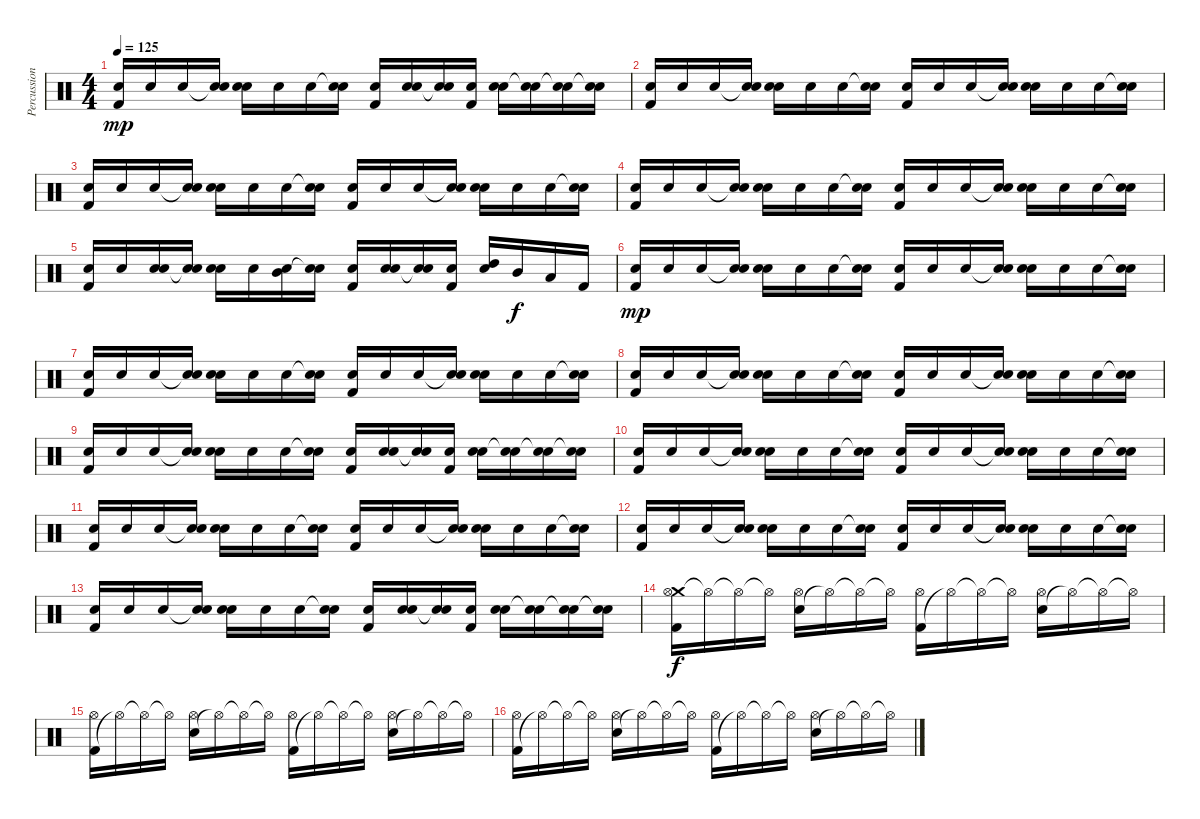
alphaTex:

\track ("Percussions" "Percussion") {instrument percussion}
\staff {score}
\articulation defaults
\ts (4 4)
\tempo 125
\clef neutral
\ks c
("Kick (hit) 2" "Electric Snare (hit)").16{dy mp} "Electric Snare (hit)".16 "Electric Snare (hit)".16 ("Snare (hit)"{t} "Electric Snare (hit)").16 ("Electric Snare (hit)" "Electric Snare (hit)").16 "Electric Snare (hit)".16 "Electric Snare (hit)".16 ("Snare (hit)"{t} "Electric Snare (hit)").16 ("Kick (hit) 2" "Electric Snare (hit)").16 ("Electric Snare (hit)" "Electric Snare (hit)").16 ("Electric Snare (hit)"{t} "Electric Snare (hit)").16 ("Kick (hit) 2" "Electric Snare (hit)").16 ("Electric Snare (hit)" "Electric Snare (hit)").16 ("Electric Snare (hit)"{t} "Electric Snare (hit)").16 ("Electric Snare (hit)"{t} "Electric Snare (hit)").16 ("Snare (hit)"{t} "Electric Snare (hit)").16 |
("Kick (hit) 2" "Electric Snare (hit)").16 "Electric Snare (hit)".16 "Electric Snare (hit)".16 ("Snare (hit)"{t} "Electric Snare (hit)").16 ("Electric Snare (hit)" "Electric Snare (hit)").16 "Electric Snare (hit)".16 "Electric Snare (hit)".16 ("Snare (hit)"{t} "Electric Snare (hit)").16 ("Kick (hit) 2" "Electric Snare (hit)").16 "Electric Snare (hit)".16 "Electric Snare (hit)".16 ("Snare (hit)"{t} "Electric Snare (hit)").16 ("Electric Snare (hit)" "Electric Snare (hit)").16 "Electric Snare (hit)".16 "Electric Snare (hit)".16 ("Snare (hit)"{t} "Electric Snare (hit)").16 |
("Kick (hit) 2" "Electric Snare (hit)").16 "Electric Snare (hit)".16 "Electric Snare (hit)".16 ("Snare (hit)"{t} "Electric Snare (hit)").16 ("Electric Snare (hit)" "Electric Snare (hit)").16 "Electric Snare (hit)".16 "Electric Snare (hit)".16 ("Snare (hit)"{t} "Electric Snare (hit)").16 ("Kick (hit) 2" "Electric Snare (hit)").16 "Electric Snare (hit)".16 "Electric Snare (hit)".16 ("Snare (hit)"{t} "Electric Snare (hit)").16 ("Electric Snare (hit)" "Electric Snare (hit)").16 "Electric Snare (hit)".16 "Electric Snare (hit)".16 ("Snare (hit)"{t} "Electric Snare (hit)").16 |
("Kick (hit) 2" "Electric Snare (hit)").16 "Electric Snare (hit)".16 "Electric Snare (hit)".16 ("Snare (hit)"{t} "Electric Snare (hit)").16 ("Electric Snare (hit)" "Electric Snare (hit)").16 "Electric Snare (hit)".16 "Electric Snare (hit)".16 ("Snare (hit)"{t} "Electric Snare (hit)").16 ("Kick (hit) 2" "Electric Snare (hit)").16 "Electric Snare (hit)".16 "Electric Snare (hit)".16 ("Snare (hit)"{t} "Electric Snare (hit)").16 ("Electric Snare (hit)" "Electric Snare (hit)").16 "Electric Snare (hit)".16 "Electric Snare (hit)".16 ("Snare (hit)"{t} "Electric Snare (hit)").16 |
("Kick (hit) 2" "Electric Snare (hit)").16 "Electric Snare (hit)".16 ("Electric Snare (hit)" "Electric Snare (hit)").16 ("Snare (hit)"{t} "Electric Snare (hit)").16 ("Electric Snare (hit)" "Electric Snare (hit)").16 "Electric Snare (hit)".16 ("Mid Tom (hit)" "Electric Snare (hit)").16 ("Snare (hit)"{t} "Electric Snare (hit)").16 ("Kick (hit) 2" "Electric Snare (hit)").16 ("Electric Snare (hit)" "Electric Snare (hit)").16 ("Electric Snare (hit)"{t} "Electric Snare (hit)").16 ("Kick (hit) 2" "Electric Snare (hit)").16 ("High Tom (hit)" "Electric Snare (hit)").16 "Mid Tom (hit)".16{dy f} "Low Tom (hit)".16 "Kick (hit) 2".16 |
("Kick (hit) 2" "Electric Snare (hit)").16{dy mp} "Electric Snare (hit)".16 "Electric Snare (hit)".16 ("Snare (hit)"{t} "Electric Snare (hit)").16 ("Electric Snare (hit)" "Electric Snare (hit)").16 "Electric Snare (hit)".16 "Electric Snare (hit)".16 ("Snare (hit)"{t} "Electric Snare (hit)").16 ("Kick (hit) 2" "Electric Snare (hit)").16 "Electric Snare (hit)".16 "Electric Snare (hit)".16 ("Snare (hit)"{t} "Electric Snare (hit)").16 ("Electric Snare (hit)" "Electric Snare (hit)").16 "Electric Snare (hit)".16 "Electric Snare (hit)".16 ("Snare (hit)"{t} "Electric Snare (hit)").16 |
("Kick (hit) 2" "Electric Snare (hit)").16 "Electric Snare (hit)".16 "Electric Snare (hit)".16 ("Snare (hit)"{t} "Electric Snare (hit)").16 ("Electric Snare (hit)" "Electric Snare (hit)").16 "Electric Snare (hit)".16 "Electric Snare (hit)".16 ("Snare (hit)"{t} "Electric Snare (hit)").16 ("Kick (hit) 2" "Electric Snare (hit)").16 "Electric Snare (hit)".16 "Electric Snare (hit)".16 ("Snare (hit)"{t} "Electric Snare (hit)").16 ("Electric Snare (hit)" "Electric Snare (hit)").16 "Electric Snare (hit)".16 "Electric Snare (hit)".16 ("Snare (hit)"{t} "Electric Snare (hit)").16 |
("Kick (hit) 2" "Electric Snare (hit)").16 "Electric Snare (hit)".16 "Electric Snare (hit)".16 ("Snare (hit)"{t} "Electric Snare (hit)").16 ("Electric Snare (hit)" "Electric Snare (hit)").16 "Electric Snare (hit)".16 "Electric Snare (hit)".16 ("Snare (hit)"{t} "Electric Snare (hit)").16 ("Kick (hit) 2" "Electric Snare (hit)").16 "Electric Snare (hit)".16 "Electric Snare (hit)".16 ("Snare (hit)"{t} "Electric Snare (hit)").16 ("Electric Snare (hit)" "Electric Snare (hit)").16 "Electric Snare (hit)".16 "Electric Snare (hit)".16 ("Snare (hit)"{t} "Electric Snare (hit)").16 |
("Kick (hit) 2" "Electric Snare (hit)").16 "Electric Snare (hit)".16 "Electric Snare (hit)".16 ("Snare (hit)"{t} "Electric Snare (hit)").16 ("Electric Snare (hit)" "Electric Snare (hit)").16 "Electric Snare (hit)".16 "Electric Snare (hit)".16 ("Snare (hit)"{t} "Electric Snare (hit)").16 ("Kick (hit) 2" "Electric Snare (hit)").16 ("Electric Snare (hit)" "Electric Snare (hit)").16 ("Electric Snare (hit)"{t} "Electric Snare (hit)").16 ("Kick (hit) 2" "Electric Snare (hit)").16 ("Electric Snare (hit)" "Electric Snare (hit)").16 ("Electric Snare (hit)"{t} "Electric Snare (hit)").16 ("Electric Snare (hit)"{t} "Electric Snare (hit)").16 ("Snare (hit)"{t} "Electric Snare (hit)").16 |
("Kick (hit) 2" "Electric Snare (hit)").16 "Electric Snare (hit)".16 "Electric Snare (hit)".16 ("Snare (hit)"{t} "Electric Snare (hit)").16 ("Electric Snare (hit)" "Electric Snare (hit)").16 "Electric Snare (hit)".16 "Electric Snare (hit)".16 ("Snare (hit)"{t} "Electric Snare (hit)").16 ("Kick (hit) 2" "Electric Snare (hit)").16 "Electric Snare (hit)".16 "Electric Snare (hit)".16 ("Snare (hit)"{t} "Electric Snare (hit)").16 ("Electric Snare (hit)" "Electric Snare (hit)").16 "Electric Snare (hit)".16 "Electric Snare (hit)".16 ("Snare (hit)"{t} "Electric Snare (hit)").16 |
("Kick (hit) 2" "Electric Snare (hit)").16 "Electric Snare (hit)".16 "Electric Snare (hit)".16 ("Snare (hit)"{t} "Electric Snare (hit)").16 ("Electric Snare (hit)" "Electric Snare (hit)").16 "Electric Snare (hit)".16 "Electric Snare (hit)".16 ("Snare (hit)"{t} "Electric Snare (hit)").16 ("Kick (hit) 2" "Electric Snare (hit)").16 "Electric Snare (hit)".16 "Electric Snare (hit)".16 ("Snare (hit)"{t} "Electric Snare (hit)").16 ("Electric Snare (hit)" "Electric Snare (hit)").16 "Electric Snare (hit)".16 "Electric Snare (hit)".16 ("Snare (hit)"{t} "Electric Snare (hit)").16 |
("Kick (hit) 2" "Electric Snare (hit)").16 "Electric Snare (hit)".16 "Electric Snare (hit)".16 ("Snare (hit)"{t} "Electric Snare (hit)").16 ("Electric Snare (hit)" "Electric Snare (hit)").16 "Electric Snare (hit)".16 "Electric Snare (hit)".16 ("Snare (hit)"{t} "Electric Snare (hit)").16 ("Kick (hit) 2" "Electric Snare (hit)").16 "Electric Snare (hit)".16 "Electric Snare (hit)".16 ("Snare (hit)"{t} "Electric Snare (hit)").16 ("Electric Snare (hit)" "Electric Snare (hit)").16 "Electric Snare (hit)".16 "Electric Snare (hit)".16 ("Snare (hit)"{t} "Electric Snare (hit)").16 |
("Kick (hit) 2" "Electric Snare (hit)").16 "Electric Snare (hit)".16 "Electric Snare (hit)".16 ("Snare (hit)"{t} "Electric Snare (hit)").16 ("Electric Snare (hit)" "Electric Snare (hit)").16 "Electric Snare (hit)".16 "Electric Snare (hit)".16 ("Snare (hit)"{t} "Electric Snare (hit)").16 ("Kick (hit) 2" "Electric Snare (hit)").16 ("Electric Snare (hit)" "Electric Snare (hit)").16 ("Electric Snare (hit)"{t} "Electric Snare (hit)").16 ("Kick (hit) 2" "Electric Snare (hit)").16 ("Electric Snare (hit)" "Electric Snare (hit)").16 ("Electric Snare (hit)"{t} "Electric Snare (hit)").16 ("Electric Snare (hit)"{t} "Electric Snare (hit)").16 ("Snare (hit)"{t} "Electric Snare (hit)").16 |
("Crash medium (hit)" "Kick (hit) 2" "Hi-Hat (open)").16{dy f} "Hi-Hat (open)"{t}.16 "Hi-Hat (open)"{t}.16 "Hi-Hat (open)"{t}.16 ("Electric Snare (hit)" "Hi-Hat (open)").16 "Hi-Hat (open)"{t}.16 "Hi-Hat (open)"{t}.16 "Hi-Hat (open)"{t}.16 ("Kick (hit) 2" "Hi-Hat (open)").16 "Hi-Hat (open)"{t}.16 "Hi-Hat (open)"{t}.16 "Hi-Hat (open)"{t}.16 ("Electric Snare (hit)" "Hi-Hat (open)").16 "Hi-Hat (open)"{t}.16 "Hi-Hat (open)"{t}.16 "Hi-Hat (open)"{t}.16 |
("Kick (hit) 2" "Hi-Hat (open)").16 "Hi-Hat (open)"{t}.16 "Hi-Hat (open)"{t}.16 "Hi-Hat (open)"{t}.16 ("Electric Snare (hit)" "Hi-Hat (open)").16 "Hi-Hat (open)"{t}.16 "Hi-Hat (open)"{t}.16 "Hi-Hat (open)"{t}.16 ("Kick (hit) 2" "Hi-Hat (open)").16 "Hi-Hat (open)"{t}.16 "Hi-Hat (open)"{t}.16 "Hi-Hat (open)"{t}.16 ("Electric Snare (hit)" "Hi-Hat (open)").16 "Hi-Hat (open)"{t}.16 "Hi-Hat (open)"{t}.16 "Hi-Hat (open)"{t}.16 |
("Kick (hit) 2" "Hi-Hat (open)").16 "Hi-Hat (open)"{t}.16 "Hi-Hat (open)"{t}.16 "Hi-Hat (open)"{t}.16 ("Electric Snare (hit)" "Hi-Hat (open)").16 "Hi-Hat (open)"{t}.16 "Hi-Hat (open)"{t}.16 "Hi-Hat (open)"{t}.16 ("Kick (hit) 2" "Hi-Hat (open)").16 "Hi-Hat (open)"{t}.16 "Hi-Hat (open)"{t}.16 "Hi-Hat (open)"{t}.16 ("Electric Snare (hit)" "Hi-Hat (open)").16 "Hi-Hat (open)"{t}.16 "Hi-Hat (open)"{t}.16 "Hi-Hat (open)"{t}.16
